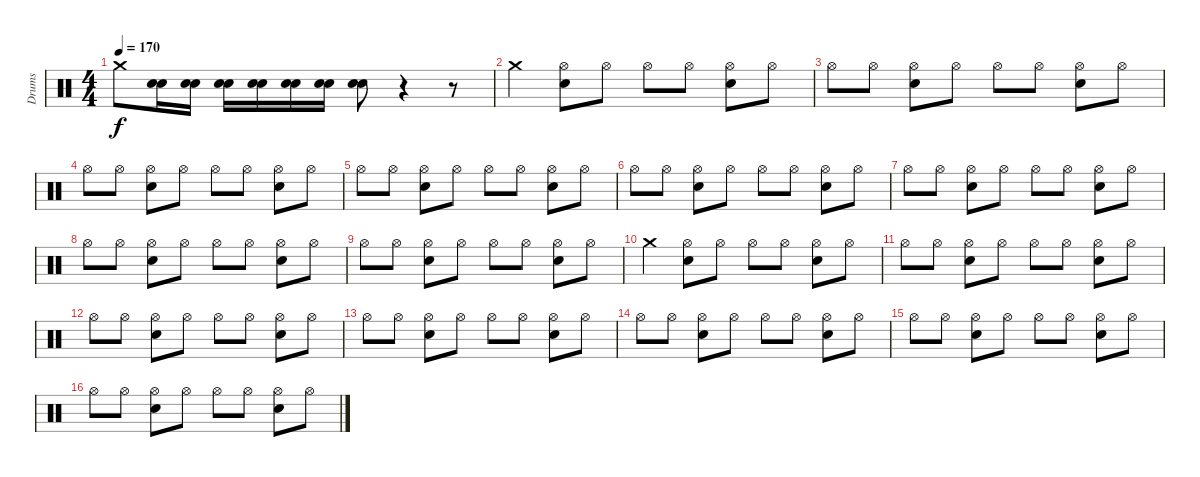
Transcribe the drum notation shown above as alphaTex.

\track ("Drums" "Drums") {instrument percussion}
\staff {score}
\articulation defaults
\ts (4 4)
\tempo 170
\clef neutral
\ks c "Crash medium (hit)".8{dy f}
("Electric Snare (hit)" "Metronome (bell)").16 ("Electric Snare (hit)" "Metronome (bell)").16 ("Electric Snare (hit)" "Metronome (bell)").16 ("Electric Snare (hit)" "Metronome (bell)").16 ("Electric Snare (hit)" "Metronome (bell)").16 ("Electric Snare (hit)" "Metronome (bell)").16 ("Electric Snare (hit)" "Metronome (bell)").8 r.4 r.8 |
"Crash medium (hit)".4 ("Electric Snare (hit)" "Hi-Hat (open)").8 "Hi-Hat (open)".8 "Hi-Hat (open)".8 "Hi-Hat (open)".8 ("Electric Snare (hit)" "Hi-Hat (open)").8 "Hi-Hat (open)".8 |
"Hi-Hat (open)".8 "Hi-Hat (open)".8 ("Electric Snare (hit)" "Hi-Hat (open)").8 "Hi-Hat (open)".8 "Hi-Hat (open)".8 "Hi-Hat (open)".8 ("Electric Snare (hit)" "Hi-Hat (open)").8 "Hi-Hat (open)".8 |
"Hi-Hat (open)".8 "Hi-Hat (open)".8 ("Electric Snare (hit)" "Hi-Hat (open)").8 "Hi-Hat (open)".8 "Hi-Hat (open)".8 "Hi-Hat (open)".8 ("Electric Snare (hit)" "Hi-Hat (open)").8 "Hi-Hat (open)".8 |
"Hi-Hat (open)".8 "Hi-Hat (open)".8 ("Electric Snare (hit)" "Hi-Hat (open)").8 "Hi-Hat (open)".8 "Hi-Hat (open)".8 "Hi-Hat (open)".8 ("Electric Snare (hit)" "Hi-Hat (open)").8 "Hi-Hat (open)".8 |
"Hi-Hat (open)".8 "Hi-Hat (open)".8 ("Electric Snare (hit)" "Hi-Hat (open)").8 "Hi-Hat (open)".8 "Hi-Hat (open)".8 "Hi-Hat (open)".8 ("Electric Snare (hit)" "Hi-Hat (open)").8 "Hi-Hat (open)".8 |
"Hi-Hat (open)".8 "Hi-Hat (open)".8 ("Electric Snare (hit)" "Hi-Hat (open)").8 "Hi-Hat (open)".8 "Hi-Hat (open)".8 "Hi-Hat (open)".8 ("Electric Snare (hit)" "Hi-Hat (open)").8 "Hi-Hat (open)".8 |
"Hi-Hat (open)".8 "Hi-Hat (open)".8 ("Electric Snare (hit)" "Hi-Hat (open)").8 "Hi-Hat (open)".8 "Hi-Hat (open)".8 "Hi-Hat (open)".8 ("Electric Snare (hit)" "Hi-Hat (open)").8 "Hi-Hat (open)".8 |
"Hi-Hat (open)".8 "Hi-Hat (open)".8 ("Electric Snare (hit)" "Hi-Hat (open)").8 "Hi-Hat (open)".8 "Hi-Hat (open)".8 "Hi-Hat (open)".8 ("Electric Snare (hit)" "Hi-Hat (open)").8 "Hi-Hat (open)".8 |
"Crash medium (hit)".4 ("Electric Snare (hit)" "Hi-Hat (open)").8 "Hi-Hat (open)".8 "Hi-Hat (open)".8 "Hi-Hat (open)".8 ("Electric Snare (hit)" "Hi-Hat (open)").8 "Hi-Hat (open)".8 |
"Hi-Hat (open)".8 "Hi-Hat (open)".8 ("Electric Snare (hit)" "Hi-Hat (open)").8 "Hi-Hat (open)".8 "Hi-Hat (open)".8 "Hi-Hat (open)".8 ("Electric Snare (hit)" "Hi-Hat (open)").8 "Hi-Hat (open)".8 |
"Hi-Hat (open)".8 "Hi-Hat (open)".8 ("Electric Snare (hit)" "Hi-Hat (open)").8 "Hi-Hat (open)".8 "Hi-Hat (open)".8 "Hi-Hat (open)".8 ("Electric Snare (hit)" "Hi-Hat (open)").8 "Hi-Hat (open)".8 |
"Hi-Hat (open)".8 "Hi-Hat (open)".8 ("Electric Snare (hit)" "Hi-Hat (open)").8 "Hi-Hat (open)".8 "Hi-Hat (open)".8 "Hi-Hat (open)".8 ("Electric Snare (hit)" "Hi-Hat (open)").8 "Hi-Hat (open)".8 |
"Hi-Hat (open)".8 "Hi-Hat (open)".8 ("Electric Snare (hit)" "Hi-Hat (open)").8 "Hi-Hat (open)".8 "Hi-Hat (open)".8 "Hi-Hat (open)".8 ("Electric Snare (hit)" "Hi-Hat (open)").8 "Hi-Hat (open)".8 |
"Hi-Hat (open)".8 "Hi-Hat (open)".8 ("Electric Snare (hit)" "Hi-Hat (open)").8 "Hi-Hat (open)".8 "Hi-Hat (open)".8 "Hi-Hat (open)".8 ("Electric Snare (hit)" "Hi-Hat (open)").8 "Hi-Hat (open)".8 |
"Hi-Hat (open)".8 "Hi-Hat (open)".8 ("Electric Snare (hit)" "Hi-Hat (open)").8 "Hi-Hat (open)".8 "Hi-Hat (open)".8 "Hi-Hat (open)".8 ("Electric Snare (hit)" "Hi-Hat (open)").8 "Hi-Hat (open)".8
